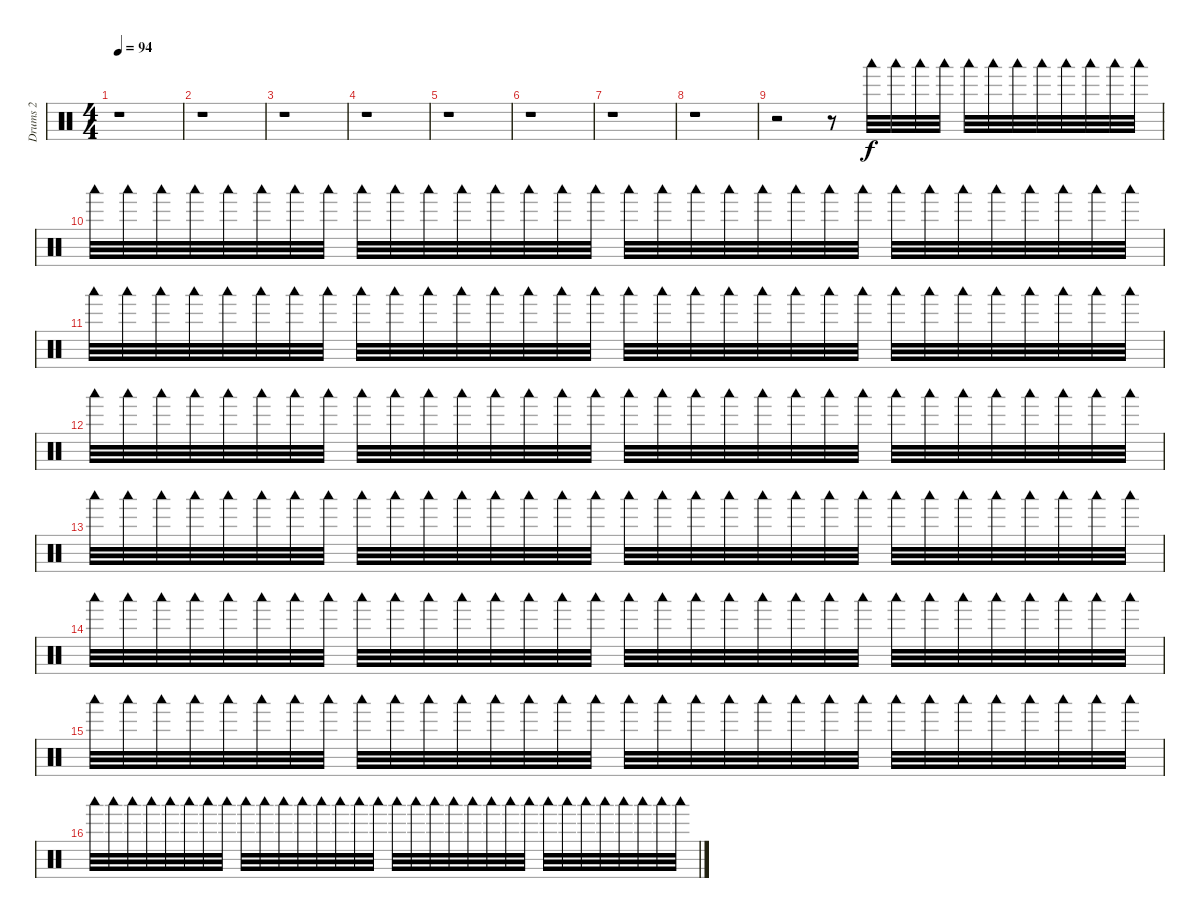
\track ("Drums 2" "Drums 2") {instrument percussion}
\staff {score}
\articulation defaults
\ts (4 4)
\tempo 94
\clef neutral
\ks c
r.1{dy f} |
r.1 |
r.1 |
r.1 |
r.1 |
r.1 |
r.1 |
r.1 |
r.2 r.8 "Woodblock low (hit)".32 "Woodblock low (hit)".32 "Woodblock low (hit)".32 "Woodblock low (hit)".32 "Woodblock low (hit)".32 "Woodblock low (hit)".32 "Woodblock low (hit)".32 "Woodblock low (hit)".32 "Woodblock low (hit)".32 "Woodblock low (hit)".32 "Woodblock low (hit)".32 "Woodblock low (hit)".32 |
"Woodblock low (hit)".32 "Woodblock low (hit)".32 "Woodblock low (hit)".32 "Woodblock low (hit)".32 "Woodblock low (hit)".32 "Woodblock low (hit)".32 "Woodblock low (hit)".32 "Woodblock low (hit)".32 "Woodblock low (hit)".32 "Woodblock low (hit)".32 "Woodblock low (hit)".32 "Woodblock low (hit)".32 "Woodblock low (hit)".32 "Woodblock low (hit)".32 "Woodblock low (hit)".32 "Woodblock low (hit)".32 "Woodblock low (hit)".32 "Woodblock low (hit)".32 "Woodblock low (hit)".32 "Woodblock low (hit)".32 "Woodblock low (hit)".32 "Woodblock low (hit)".32 "Woodblock low (hit)".32 "Woodblock low (hit)".32 "Woodblock low (hit)".32 "Woodblock low (hit)".32 "Woodblock low (hit)".32 "Woodblock low (hit)".32 "Woodblock low (hit)".32 "Woodblock low (hit)".32 "Woodblock low (hit)".32 "Woodblock low (hit)".32 |
"Woodblock low (hit)".32 "Woodblock low (hit)".32 "Woodblock low (hit)".32 "Woodblock low (hit)".32 "Woodblock low (hit)".32 "Woodblock low (hit)".32 "Woodblock low (hit)".32 "Woodblock low (hit)".32 "Woodblock low (hit)".32 "Woodblock low (hit)".32 "Woodblock low (hit)".32 "Woodblock low (hit)".32 "Woodblock low (hit)".32 "Woodblock low (hit)".32 "Woodblock low (hit)".32 "Woodblock low (hit)".32 "Woodblock low (hit)".32 "Woodblock low (hit)".32 "Woodblock low (hit)".32 "Woodblock low (hit)".32 "Woodblock low (hit)".32 "Woodblock low (hit)".32 "Woodblock low (hit)".32 "Woodblock low (hit)".32 "Woodblock low (hit)".32 "Woodblock low (hit)".32 "Woodblock low (hit)".32 "Woodblock low (hit)".32 "Woodblock low (hit)".32 "Woodblock low (hit)".32 "Woodblock low (hit)".32 "Woodblock low (hit)".32 |
"Woodblock low (hit)".32 "Woodblock low (hit)".32 "Woodblock low (hit)".32 "Woodblock low (hit)".32 "Woodblock low (hit)".32 "Woodblock low (hit)".32 "Woodblock low (hit)".32 "Woodblock low (hit)".32 "Woodblock low (hit)".32 "Woodblock low (hit)".32 "Woodblock low (hit)".32 "Woodblock low (hit)".32 "Woodblock low (hit)".32 "Woodblock low (hit)".32 "Woodblock low (hit)".32 "Woodblock low (hit)".32 "Woodblock low (hit)".32 "Woodblock low (hit)".32 "Woodblock low (hit)".32 "Woodblock low (hit)".32 "Woodblock low (hit)".32 "Woodblock low (hit)".32 "Woodblock low (hit)".32 "Woodblock low (hit)".32 "Woodblock low (hit)".32 "Woodblock low (hit)".32 "Woodblock low (hit)".32 "Woodblock low (hit)".32 "Woodblock low (hit)".32 "Woodblock low (hit)".32 "Woodblock low (hit)".32 "Woodblock low (hit)".32 |
"Woodblock low (hit)".32 "Woodblock low (hit)".32 "Woodblock low (hit)".32 "Woodblock low (hit)".32 "Woodblock low (hit)".32 "Woodblock low (hit)".32 "Woodblock low (hit)".32 "Woodblock low (hit)".32 "Woodblock low (hit)".32 "Woodblock low (hit)".32 "Woodblock low (hit)".32 "Woodblock low (hit)".32 "Woodblock low (hit)".32 "Woodblock low (hit)".32 "Woodblock low (hit)".32 "Woodblock low (hit)".32 "Woodblock low (hit)".32 "Woodblock low (hit)".32 "Woodblock low (hit)".32 "Woodblock low (hit)".32 "Woodblock low (hit)".32 "Woodblock low (hit)".32 "Woodblock low (hit)".32 "Woodblock low (hit)".32 "Woodblock low (hit)".32 "Woodblock low (hit)".32 "Woodblock low (hit)".32 "Woodblock low (hit)".32 "Woodblock low (hit)".32 "Woodblock low (hit)".32 "Woodblock low (hit)".32 "Woodblock low (hit)".32 |
"Woodblock low (hit)".32 "Woodblock low (hit)".32 "Woodblock low (hit)".32 "Woodblock low (hit)".32 "Woodblock low (hit)".32 "Woodblock low (hit)".32 "Woodblock low (hit)".32 "Woodblock low (hit)".32 "Woodblock low (hit)".32 "Woodblock low (hit)".32 "Woodblock low (hit)".32 "Woodblock low (hit)".32 "Woodblock low (hit)".32 "Woodblock low (hit)".32 "Woodblock low (hit)".32 "Woodblock low (hit)".32 "Woodblock low (hit)".32 "Woodblock low (hit)".32 "Woodblock low (hit)".32 "Woodblock low (hit)".32 "Woodblock low (hit)".32 "Woodblock low (hit)".32 "Woodblock low (hit)".32 "Woodblock low (hit)".32 "Woodblock low (hit)".32 "Woodblock low (hit)".32 "Woodblock low (hit)".32 "Woodblock low (hit)".32 "Woodblock low (hit)".32 "Woodblock low (hit)".32 "Woodblock low (hit)".32 "Woodblock low (hit)".32 |
"Woodblock low (hit)".32 "Woodblock low (hit)".32 "Woodblock low (hit)".32 "Woodblock low (hit)".32 "Woodblock low (hit)".32 "Woodblock low (hit)".32 "Woodblock low (hit)".32 "Woodblock low (hit)".32 "Woodblock low (hit)".32 "Woodblock low (hit)".32 "Woodblock low (hit)".32 "Woodblock low (hit)".32 "Woodblock low (hit)".32 "Woodblock low (hit)".32 "Woodblock low (hit)".32 "Woodblock low (hit)".32 "Woodblock low (hit)".32 "Woodblock low (hit)".32 "Woodblock low (hit)".32 "Woodblock low (hit)".32 "Woodblock low (hit)".32 "Woodblock low (hit)".32 "Woodblock low (hit)".32 "Woodblock low (hit)".32 "Woodblock low (hit)".32 "Woodblock low (hit)".32 "Woodblock low (hit)".32 "Woodblock low (hit)".32 "Woodblock low (hit)".32 "Woodblock low (hit)".32 "Woodblock low (hit)".32 "Woodblock low (hit)".32 |
"Woodblock low (hit)".32 "Woodblock low (hit)".32 "Woodblock low (hit)".32 "Woodblock low (hit)".32 "Woodblock low (hit)".32 "Woodblock low (hit)".32 "Woodblock low (hit)".32 "Woodblock low (hit)".32 "Woodblock low (hit)".32 "Woodblock low (hit)".32 "Woodblock low (hit)".32 "Woodblock low (hit)".32 "Woodblock low (hit)".32 "Woodblock low (hit)".32 "Woodblock low (hit)".32 "Woodblock low (hit)".32 "Woodblock low (hit)".32 "Woodblock low (hit)".32 "Woodblock low (hit)".32 "Woodblock low (hit)".32 "Woodblock low (hit)".32 "Woodblock low (hit)".32 "Woodblock low (hit)".32 "Woodblock low (hit)".32 "Woodblock low (hit)".32 "Woodblock low (hit)".32 "Woodblock low (hit)".32 "Woodblock low (hit)".32 "Woodblock low (hit)".32 "Woodblock low (hit)".32 "Woodblock low (hit)".32 "Woodblock low (hit)".32
